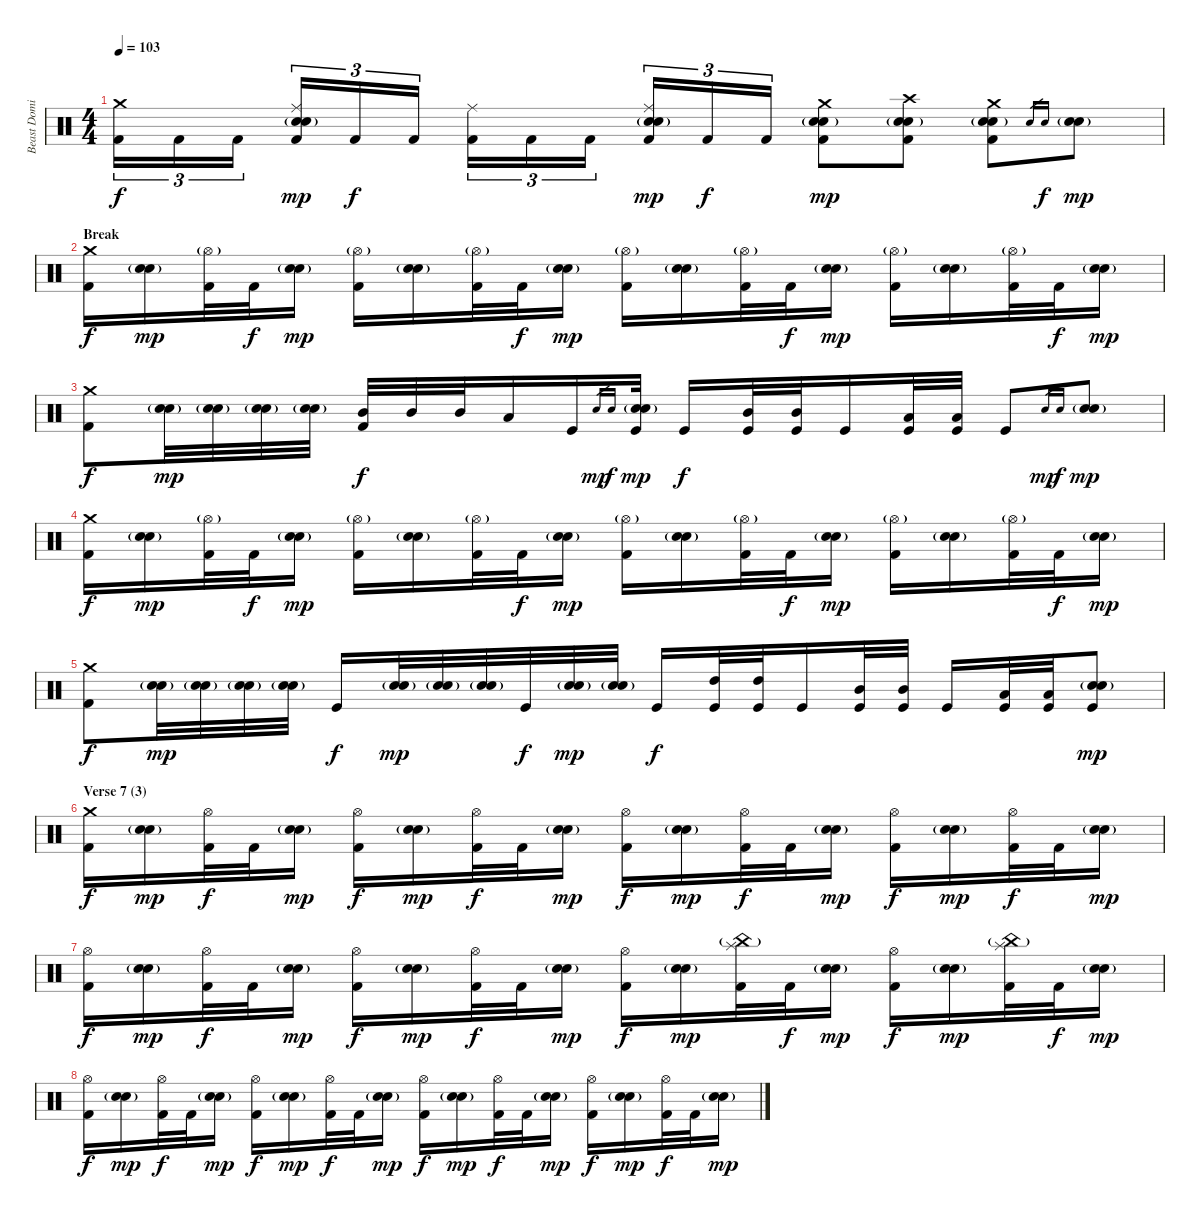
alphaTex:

\track ("Beast Dominator" "Beast Domi") {instrument percussion}
\staff {score}
\articulation defaults
\ts (4 4)
\tempo 103
\clef neutral
\ks c
("Crash medium (hit)" "Kick (hit) 2").16{tu (3 2) dy f} "Kick (hit) 2".16{tu (3 2)} "Kick (hit) 2".16{tu (3 2)} ("Ride (middle)" "Electric Snare (hit)"{g} "Snare (hit) 2" "Kick (hit) 2").16{tu (3 2) dy mp} "Kick (hit) 2".16{tu (3 2) dy f} "Kick (hit) 2".16{tu (3 2)} ("Ride (middle)" "Kick (hit) 2").16{tu (3 2)} "Kick (hit) 2".16{tu (3 2)} "Kick (hit) 2".16{tu (3 2)} ("Ride (middle)" "Electric Snare (hit)"{g} "Snare (hit) 2" "Kick (hit) 2").16{tu (3 2) dy mp} "Kick (hit) 2".16{tu (3 2) dy f} "Kick (hit) 2".16{tu (3 2)} ("Crash medium (hit)" "Electric Snare (hit)"{g} "Snare (hit) 2" "Kick (hit) 2").8{dy mp} ("Crash high (hit)" "Electric Snare (hit)"{g} "Snare (hit) 2" "Kick (hit) 2").8 ("Crash medium (hit)" "Electric Snare (hit)"{g} "Snare (hit) 2" "Kick (hit) 2").8 "Electric Snare (hit)".16{gr} "Snare (hit) 2".16{gr dy f} ("Electric Snare (hit)"{g} "Snare (hit) 2").8{dy mp} |
\section ("" "Break")
("Crash medium (hit)" "Kick (hit) 2").16{dy f} ("Electric Snare (hit)"{g} "Snare (hit) 2").16{dy mp} ("Hi-Hat (open)"{g} "Kick (hit) 2").32 "Kick (hit) 2".32{dy f} ("Electric Snare (hit)"{g} "Snare (hit) 2").16{dy mp} ("Hi-Hat (open)"{g} "Kick (hit) 2").16 ("Electric Snare (hit)"{g} "Snare (hit) 2").16 ("Hi-Hat (open)"{g} "Kick (hit) 2").32 "Kick (hit) 2".32{dy f} ("Electric Snare (hit)"{g} "Snare (hit) 2").16{dy mp} ("Hi-Hat (open)"{g} "Kick (hit) 2").16 ("Electric Snare (hit)"{g} "Snare (hit) 2").16 ("Hi-Hat (open)"{g} "Kick (hit) 2").32 "Kick (hit) 2".32{dy f} ("Electric Snare (hit)"{g} "Snare (hit) 2").16{dy mp} ("Hi-Hat (open)"{g} "Kick (hit) 2").16 ("Electric Snare (hit)"{g} "Snare (hit) 2").16 ("Hi-Hat (open)"{g} "Kick (hit) 2").32 "Kick (hit) 2".32{dy f} ("Electric Snare (hit)"{g} "Snare (hit) 2").16{dy mp} |
("Crash medium (hit)" "Kick (hit) 2").8{dy f} ("Electric Snare (hit)"{g} "Snare (hit) 2").32{dy mp} ("Electric Snare (hit)"{g} "Snare (hit) 2").32 ("Electric Snare (hit)"{g} "Snare (hit) 2").32 ("Electric Snare (hit)"{g} "Snare (hit) 2").32 ("Mid Tom (hit)" "Kick (hit) 2").32{dy f} "Mid Tom (hit)".32 "Mid Tom (hit)".32 "Low Tom (hit)".16 "Kick (hit)".16 "Electric Snare (hit)".16{gr dy mp} "Snare (hit) 2".16{gr dy f} ("Electric Snare (hit)"{g} "Snare (hit) 2" "Kick (hit)").32{dy mp} "Kick (hit)".16{dy f} ("Mid Tom (hit)" "Kick (hit)").32 ("Mid Tom (hit)" "Kick (hit)").32 "Kick (hit)".16 ("Low Tom (hit)" "Kick (hit)").32 ("Low Tom (hit)" "Kick (hit)").32 "Kick (hit)".8 "Electric Snare (hit)".16{gr dy mp} "Snare (hit) 2".16{gr dy f} ("Electric Snare (hit)"{g} "Snare (hit) 2").8{dy mp} |
("Crash medium (hit)" "Kick (hit) 2").16{dy f} ("Electric Snare (hit)"{g} "Snare (hit) 2").16{dy mp} ("Hi-Hat (open)"{g} "Kick (hit) 2").32 "Kick (hit) 2".32{dy f} ("Electric Snare (hit)"{g} "Snare (hit) 2").16{dy mp} ("Hi-Hat (open)"{g} "Kick (hit) 2").16 ("Electric Snare (hit)"{g} "Snare (hit) 2").16 ("Hi-Hat (open)"{g} "Kick (hit) 2").32 "Kick (hit) 2".32{dy f} ("Electric Snare (hit)"{g} "Snare (hit) 2").16{dy mp} ("Hi-Hat (open)"{g} "Kick (hit) 2").16 ("Electric Snare (hit)"{g} "Snare (hit) 2").16 ("Hi-Hat (open)"{g} "Kick (hit) 2").32 "Kick (hit) 2".32{dy f} ("Electric Snare (hit)"{g} "Snare (hit) 2").16{dy mp} ("Hi-Hat (open)"{g} "Kick (hit) 2").16 ("Electric Snare (hit)"{g} "Snare (hit) 2").16 ("Hi-Hat (open)"{g} "Kick (hit) 2").32 "Kick (hit) 2".32{dy f} ("Electric Snare (hit)"{g} "Snare (hit) 2").16{dy mp} |
("Crash medium (hit)" "Kick (hit) 2").8{dy f} ("Electric Snare (hit)"{g} "Snare (hit) 2").32{dy mp} ("Electric Snare (hit)"{g} "Snare (hit) 2").32 ("Electric Snare (hit)"{g} "Snare (hit) 2").32 ("Electric Snare (hit)"{g} "Snare (hit) 2").32 "Kick (hit)".16{dy f} ("Electric Snare (hit)"{g} "Snare (hit) 2").32{dy mp} ("Electric Snare (hit)"{g} "Snare (hit) 2").32 ("Electric Snare (hit)"{g} "Snare (hit) 2").32 "Kick (hit)".32{dy f} ("Electric Snare (hit)"{g} "Snare (hit) 2").32{dy mp} ("Electric Snare (hit)"{g} "Snare (hit) 2").32 "Kick (hit)".16{dy f} ("High Tom (hit)" "Kick (hit)").32 ("High Tom (hit)" "Kick (hit)").32 "Kick (hit)".16 ("Mid Tom (hit)" "Kick (hit)").32 ("Mid Tom (hit)" "Kick (hit)").32 "Kick (hit)".16 ("Low Tom (hit)" "Kick (hit)").32 ("Low Tom (hit)" "Kick (hit)").32 ("Electric Snare (hit)"{g} "Snare (hit) 2" "Kick (hit)").8{dy mp} |
\section ("" "Verse 7 (3)")
("Crash medium (hit)" "Kick (hit) 2").16{dy f} ("Electric Snare (hit)"{g} "Snare (hit) 2").16{dy mp} ("Hi-Hat (open)" "Kick (hit) 2").32{dy f} "Kick (hit) 2".32 ("Electric Snare (hit)"{g} "Snare (hit) 2").16{dy mp} ("Hi-Hat (open)" "Kick (hit) 2").16{dy f} ("Electric Snare (hit)"{g} "Snare (hit) 2").16{dy mp} ("Hi-Hat (open)" "Kick (hit) 2").32{dy f} "Kick (hit) 2".32 ("Electric Snare (hit)"{g} "Snare (hit) 2").16{dy mp} ("Hi-Hat (open)" "Kick (hit) 2").16{dy f} ("Electric Snare (hit)"{g} "Snare (hit) 2").16{dy mp} ("Hi-Hat (open)" "Kick (hit) 2").32{dy f} "Kick (hit) 2".32 ("Electric Snare (hit)"{g} "Snare (hit) 2").16{dy mp} ("Hi-Hat (open)" "Kick (hit) 2").16{dy f} ("Electric Snare (hit)"{g} "Snare (hit) 2").16{dy mp} ("Hi-Hat (open)" "Kick (hit) 2").32{dy f} "Kick (hit) 2".32 ("Electric Snare (hit)"{g} "Snare (hit) 2").16{dy mp} |
("Hi-Hat (open)" "Kick (hit) 2").16{dy f} ("Electric Snare (hit)"{g} "Snare (hit) 2").16{dy mp} ("Hi-Hat (open)" "Kick (hit) 2").32{dy f} "Kick (hit) 2".32 ("Electric Snare (hit)"{g} "Snare (hit) 2").16{dy mp} ("Hi-Hat (open)" "Kick (hit) 2").16{dy f} ("Electric Snare (hit)"{g} "Snare (hit) 2").16{dy mp} ("Hi-Hat (open)" "Kick (hit) 2").32{dy f} "Kick (hit) 2".32 ("Electric Snare (hit)"{g} "Snare (hit) 2").16{dy mp} ("Hi-Hat (open)" "Kick (hit) 2").16{dy f} ("Electric Snare (hit)"{g} "Snare (hit) 2").16{dy mp} ("Splash (hit)" "China (hit)"{g} "Kick (hit) 2").32 "Kick (hit) 2".32{dy f} ("Electric Snare (hit)"{g} "Snare (hit) 2").16{dy mp} ("Hi-Hat (open)" "Kick (hit) 2").16{dy f} ("Electric Snare (hit)"{g} "Snare (hit) 2").16{dy mp} ("Splash (hit)" "China (hit)"{g} "Kick (hit) 2").32 "Kick (hit) 2".32{dy f} ("Electric Snare (hit)"{g} "Snare (hit) 2").16{dy mp} |
("Hi-Hat (open)" "Kick (hit) 2").16{dy f} ("Electric Snare (hit)"{g} "Snare (hit) 2").16{dy mp} ("Hi-Hat (open)" "Kick (hit) 2").32{dy f} "Kick (hit) 2".32 ("Electric Snare (hit)"{g} "Snare (hit) 2").16{dy mp} ("Hi-Hat (open)" "Kick (hit) 2").16{dy f} ("Electric Snare (hit)"{g} "Snare (hit) 2").16{dy mp} ("Hi-Hat (open)" "Kick (hit) 2").32{dy f} "Kick (hit) 2".32 ("Electric Snare (hit)"{g} "Snare (hit) 2").16{dy mp} ("Hi-Hat (open)" "Kick (hit) 2").16{dy f} ("Electric Snare (hit)"{g} "Snare (hit) 2").16{dy mp} ("Hi-Hat (open)" "Kick (hit) 2").32{dy f} "Kick (hit) 2".32 ("Electric Snare (hit)"{g} "Snare (hit) 2").16{dy mp} ("Hi-Hat (open)" "Kick (hit) 2").16{dy f} ("Electric Snare (hit)"{g} "Snare (hit) 2").16{dy mp} ("Hi-Hat (open)" "Kick (hit) 2").32{dy f} "Kick (hit) 2".32 ("Electric Snare (hit)"{g} "Snare (hit) 2").16{dy mp}
